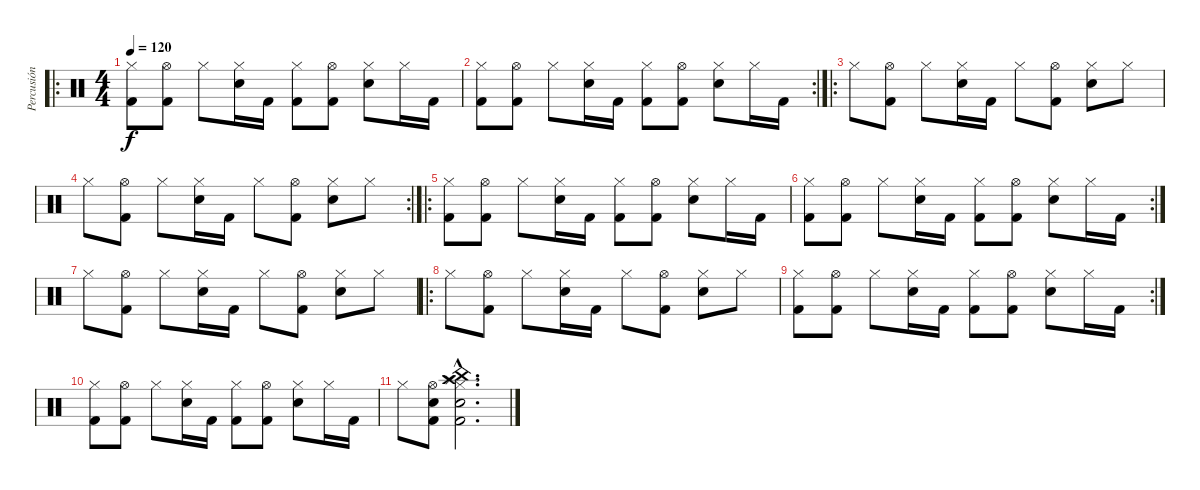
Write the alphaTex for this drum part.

\track ("Percusión" "Percusión") {instrument percussion}
\staff {score}
\articulation defaults
\ro
\ts (4 4)
\tempo 120
\clef neutral
\ks c
("Hi-Hat (closed)" "Kick (hit) 2").8{dy f} ("Hi-Hat (open)" "Kick (hit) 2").8 "Hi-Hat (closed)".8 ("Hi-Hat (closed)" "Snare (hit) 2").16 "Kick (hit) 2".16 ("Hi-Hat (closed)" "Kick (hit) 2").8 ("Hi-Hat (open)" "Kick (hit) 2").8 ("Hi-Hat (closed)" "Snare (hit) 2").8 "Hi-Hat (closed)".16 "Kick (hit) 2".16 |
\rc 2
("Hi-Hat (closed)" "Kick (hit) 2").8 ("Hi-Hat (open)" "Kick (hit) 2").8 "Hi-Hat (closed)".8 ("Hi-Hat (closed)" "Snare (hit) 2").16 "Kick (hit) 2".16 ("Hi-Hat (closed)" "Kick (hit) 2").8 ("Hi-Hat (open)" "Kick (hit) 2").8 ("Hi-Hat (closed)" "Snare (hit) 2").8 "Hi-Hat (closed)".16 "Kick (hit) 2".16 |
\ro "Hi-Hat (closed)".8
("Hi-Hat (open)" "Kick (hit) 2").8 "Hi-Hat (closed)".8 ("Hi-Hat (closed)" "Snare (hit) 2").16 "Kick (hit) 2".16 "Hi-Hat (closed)".8 ("Hi-Hat (open)" "Kick (hit) 2").8 ("Hi-Hat (closed)" "Snare (hit) 2").8 "Hi-Hat (closed)".8 |
\rc 2 "Hi-Hat (closed)".8
("Hi-Hat (open)" "Kick (hit) 2").8 "Hi-Hat (closed)".8 ("Hi-Hat (closed)" "Snare (hit) 2").16 "Kick (hit) 2".16 "Hi-Hat (closed)".8 ("Hi-Hat (open)" "Kick (hit) 2").8 ("Hi-Hat (closed)" "Snare (hit) 2").8 "Hi-Hat (closed)".8 |
\ro
("Hi-Hat (closed)" "Kick (hit) 2").8 ("Hi-Hat (open)" "Kick (hit) 2").8 "Hi-Hat (closed)".8 ("Hi-Hat (closed)" "Snare (hit) 2").16 "Kick (hit) 2".16 ("Hi-Hat (closed)" "Kick (hit) 2").8 ("Hi-Hat (open)" "Kick (hit) 2").8 ("Hi-Hat (closed)" "Snare (hit) 2").8 "Hi-Hat (closed)".16 "Kick (hit) 2".16 |
\rc 2
("Hi-Hat (closed)" "Kick (hit) 2").8 ("Hi-Hat (open)" "Kick (hit) 2").8 "Hi-Hat (closed)".8 ("Hi-Hat (closed)" "Snare (hit) 2").16 "Kick (hit) 2".16 ("Hi-Hat (closed)" "Kick (hit) 2").8 ("Hi-Hat (open)" "Kick (hit) 2").8 ("Hi-Hat (closed)" "Snare (hit) 2").8 "Hi-Hat (closed)".16 "Kick (hit) 2".16 |
"Hi-Hat (closed)".8 ("Hi-Hat (open)" "Kick (hit) 2").8 "Hi-Hat (closed)".8 ("Hi-Hat (closed)" "Snare (hit) 2").16 "Kick (hit) 2".16 "Hi-Hat (closed)".8 ("Hi-Hat (open)" "Kick (hit) 2").8 ("Hi-Hat (closed)" "Snare (hit) 2").8 "Hi-Hat (closed)".8 |
\ro "Hi-Hat (closed)".8
("Hi-Hat (open)" "Kick (hit) 2").8 "Hi-Hat (closed)".8 ("Hi-Hat (closed)" "Snare (hit) 2").16 "Kick (hit) 2".16 "Hi-Hat (closed)".8 ("Hi-Hat (open)" "Kick (hit) 2").8 ("Hi-Hat (closed)" "Snare (hit) 2").8 "Hi-Hat (closed)".8 |
\rc 2
("Hi-Hat (closed)" "Kick (hit) 2").8 ("Hi-Hat (open)" "Kick (hit) 2").8 "Hi-Hat (closed)".8 ("Hi-Hat (closed)" "Snare (hit) 2").16 "Kick (hit) 2".16 ("Hi-Hat (closed)" "Kick (hit) 2").8 ("Hi-Hat (open)" "Kick (hit) 2").8 ("Hi-Hat (closed)" "Snare (hit) 2").8 "Hi-Hat (closed)".16 "Kick (hit) 2".16 |
("Hi-Hat (closed)" "Kick (hit) 2").8 ("Hi-Hat (open)" "Kick (hit) 2").8 "Hi-Hat (closed)".8 ("Hi-Hat (closed)" "Snare (hit) 2").16 "Kick (hit) 2".16 ("Hi-Hat (closed)" "Kick (hit) 2").8 ("Hi-Hat (open)" "Kick (hit) 2").8 ("Hi-Hat (closed)" "Snare (hit) 2").8 "Hi-Hat (closed)".16 "Kick (hit) 2".16 |
"Hi-Hat (closed)".8 ("Hi-Hat (open)" "Snare (hit) 2" "Kick (hit) 2").8 ("Hi-Hat (closed)"{hac} "Splash (hit)"{hac} "China (hit)"{hac} "Crash high (hit)"{hac} "Snare (hit) 2"{hac} "Kick (hit) 2"{hac}).2{d}
